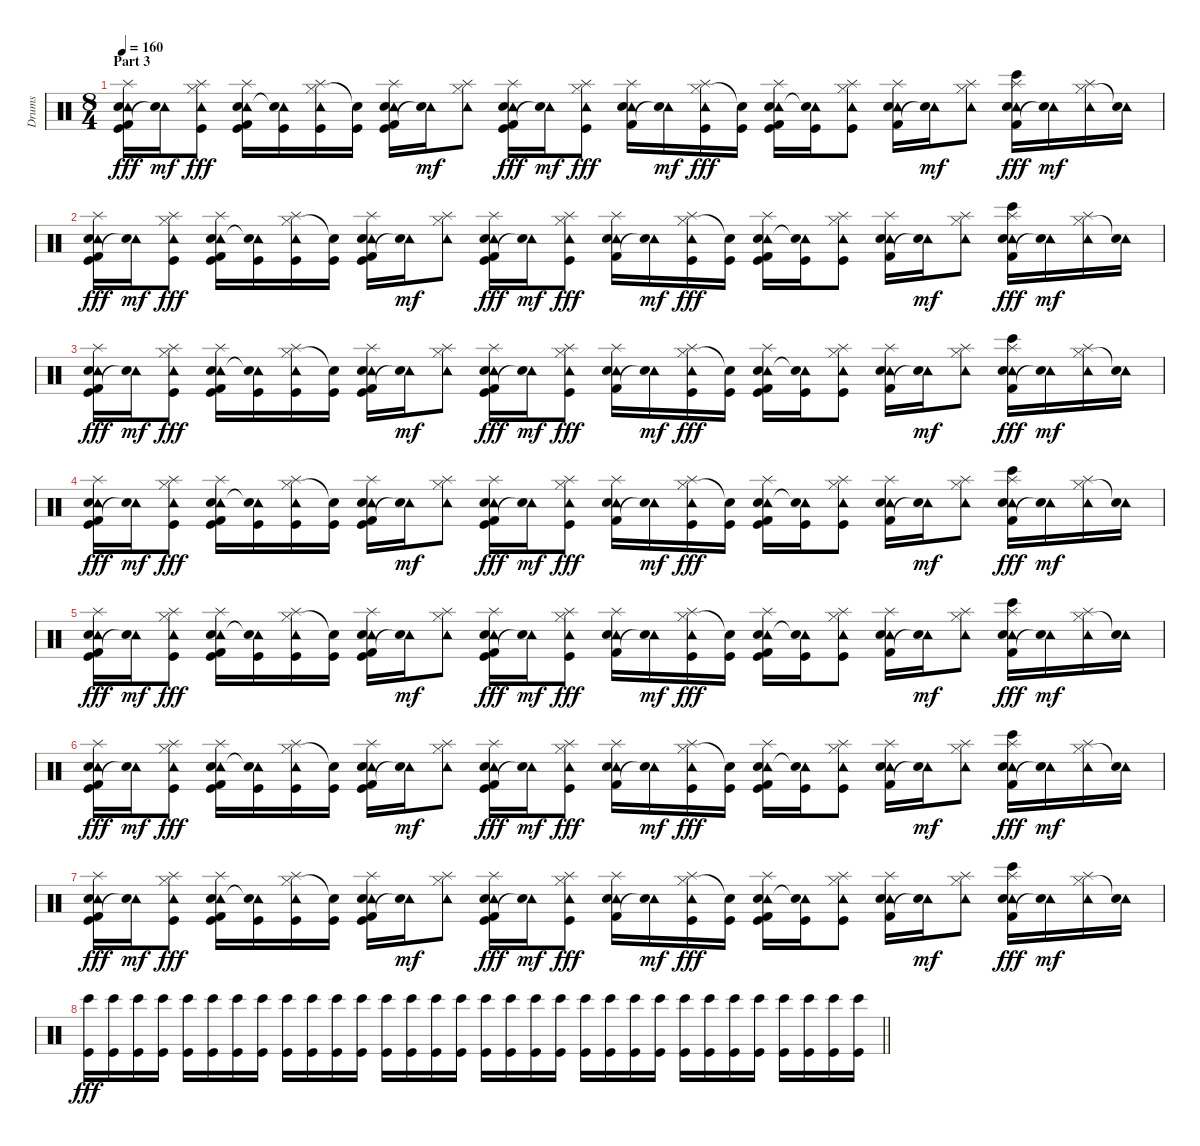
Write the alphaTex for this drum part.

\track ("Drums" "Drums") {instrument percussion}
\staff {score}
\articulation defaults
\ts (8 4)
\section ("" "Part 3")
\tempo 160
\clef neutral
\ks c
("Tambourine (hit)" "Kick (hit) 2" "Hand Clap (hit)" "Splash (hit)" "Kick (hit)").16{dy fff} ("Tambourine (hit)" "Snare (hit)"{t}).16{dy mf} ("Tambourine (hit)" "Hi-Hat (closed)" "Splash (hit)" "Kick (hit)").8{dy fff} ("Tambourine (hit)" "Kick (hit) 2" "Hand Clap (hit)" "Kick (hit)" "Splash (hit)").16 ("Tambourine (hit)" "Kick (hit)" "Snare (hit)"{t}).16 ("Tambourine (hit)" "Hi-Hat (closed)" "Splash (hit)" "Kick (hit)").16 ("Kick (hit)" "Snare (hit)"{t}).16 ("Tambourine (hit)" "Kick (hit) 2" "Hand Clap (hit)" "Kick (hit)" "Splash (hit)").16 ("Tambourine (hit)" "Snare (hit)"{t}).16{dy mf} ("Tambourine (hit)" "Hi-Hat (closed)" "Splash (hit)").8 ("Tambourine (hit)" "Kick (hit) 2" "Hand Clap (hit)" "Kick (hit)" "Splash (hit)").16{dy fff} ("Tambourine (hit)" "Snare (hit)"{t}).16{dy mf} ("Tambourine (hit)" "Hi-Hat (closed)" "Splash (hit)" "Kick (hit)").8{dy fff} ("Tambourine (hit)" "Kick (hit) 2" "Hand Clap (hit)" "Splash (hit)").16 ("Tambourine (hit)" "Snare (hit)"{t}).16{dy mf} ("Tambourine (hit)" "Hi-Hat (closed)" "Splash (hit)" "Kick (hit)").16{dy fff} ("Kick (hit)" "Snare (hit)"{t}).16 ("Tambourine (hit)" "Kick (hit) 2" "Hand Clap (hit)" "Kick (hit)" "Splash (hit)").16 ("Tambourine (hit)" "Kick (hit)" "Snare (hit)"{t}).16 ("Tambourine (hit)" "Hi-Hat (closed)" "Splash (hit)" "Kick (hit)").8 ("Tambourine (hit)" "Kick (hit) 2" "Hand Clap (hit)" "Splash (hit)").16 ("Tambourine (hit)" "Snare (hit)"{t}).16{dy mf} ("Tambourine (hit)" "Hi-Hat (closed)" "Splash (hit)").8 ("Tambourine (hit)" "Kick (hit) 2" "Hand Clap (hit)" "Bongo High (hit)" "Splash (hit)").16{dy fff} ("Tambourine (hit)" "Snare (hit)"{t}).16{dy mf} ("Tambourine (hit)" "Hi-Hat (closed)" "Splash (hit)").16 ("Tambourine (hit)" "Snare (hit)"{t}).16 |
("Tambourine (hit)" "Kick (hit) 2" "Hand Clap (hit)" "Splash (hit)" "Kick (hit)").16{dy fff} ("Tambourine (hit)" "Snare (hit)"{t}).16{dy mf} ("Tambourine (hit)" "Hi-Hat (closed)" "Splash (hit)" "Kick (hit)").8{dy fff} ("Tambourine (hit)" "Kick (hit) 2" "Hand Clap (hit)" "Kick (hit)" "Splash (hit)").16 ("Tambourine (hit)" "Kick (hit)" "Snare (hit)"{t}).16 ("Tambourine (hit)" "Hi-Hat (closed)" "Splash (hit)" "Kick (hit)").16 ("Kick (hit)" "Snare (hit)"{t}).16 ("Tambourine (hit)" "Kick (hit) 2" "Hand Clap (hit)" "Kick (hit)" "Splash (hit)").16 ("Tambourine (hit)" "Snare (hit)"{t}).16{dy mf} ("Tambourine (hit)" "Hi-Hat (closed)" "Splash (hit)").8 ("Tambourine (hit)" "Kick (hit) 2" "Hand Clap (hit)" "Kick (hit)" "Splash (hit)").16{dy fff} ("Tambourine (hit)" "Snare (hit)"{t}).16{dy mf} ("Tambourine (hit)" "Hi-Hat (closed)" "Splash (hit)" "Kick (hit)").8{dy fff} ("Tambourine (hit)" "Kick (hit) 2" "Hand Clap (hit)" "Splash (hit)").16 ("Tambourine (hit)" "Snare (hit)"{t}).16{dy mf} ("Tambourine (hit)" "Hi-Hat (closed)" "Splash (hit)" "Kick (hit)").16{dy fff} ("Kick (hit)" "Snare (hit)"{t}).16 ("Tambourine (hit)" "Kick (hit) 2" "Hand Clap (hit)" "Kick (hit)" "Splash (hit)").16 ("Tambourine (hit)" "Kick (hit)" "Snare (hit)"{t}).16 ("Tambourine (hit)" "Hi-Hat (closed)" "Splash (hit)" "Kick (hit)").8 ("Tambourine (hit)" "Kick (hit) 2" "Hand Clap (hit)" "Splash (hit)").16 ("Tambourine (hit)" "Snare (hit)"{t}).16{dy mf} ("Tambourine (hit)" "Hi-Hat (closed)" "Splash (hit)").8 ("Tambourine (hit)" "Kick (hit) 2" "Hand Clap (hit)" "Bongo High (hit)" "Splash (hit)").16{dy fff} ("Tambourine (hit)" "Snare (hit)"{t}).16{dy mf} ("Tambourine (hit)" "Hi-Hat (closed)" "Splash (hit)").16 ("Tambourine (hit)" "Snare (hit)"{t}).16 |
("Tambourine (hit)" "Kick (hit) 2" "Hand Clap (hit)" "Splash (hit)" "Kick (hit)").16{dy fff} ("Tambourine (hit)" "Snare (hit)"{t}).16{dy mf} ("Tambourine (hit)" "Hi-Hat (closed)" "Splash (hit)" "Kick (hit)").8{dy fff} ("Tambourine (hit)" "Kick (hit) 2" "Hand Clap (hit)" "Kick (hit)" "Splash (hit)").16 ("Tambourine (hit)" "Kick (hit)" "Snare (hit)"{t}).16 ("Tambourine (hit)" "Hi-Hat (closed)" "Splash (hit)" "Kick (hit)").16 ("Kick (hit)" "Snare (hit)"{t}).16 ("Tambourine (hit)" "Kick (hit) 2" "Hand Clap (hit)" "Kick (hit)" "Splash (hit)").16 ("Tambourine (hit)" "Snare (hit)"{t}).16{dy mf} ("Tambourine (hit)" "Hi-Hat (closed)" "Splash (hit)").8 ("Tambourine (hit)" "Kick (hit) 2" "Hand Clap (hit)" "Kick (hit)" "Splash (hit)").16{dy fff} ("Tambourine (hit)" "Snare (hit)"{t}).16{dy mf} ("Tambourine (hit)" "Hi-Hat (closed)" "Splash (hit)" "Kick (hit)").8{dy fff} ("Tambourine (hit)" "Kick (hit) 2" "Hand Clap (hit)" "Splash (hit)").16 ("Tambourine (hit)" "Snare (hit)"{t}).16{dy mf} ("Tambourine (hit)" "Hi-Hat (closed)" "Splash (hit)" "Kick (hit)").16{dy fff} ("Kick (hit)" "Snare (hit)"{t}).16 ("Tambourine (hit)" "Kick (hit) 2" "Hand Clap (hit)" "Kick (hit)" "Splash (hit)").16 ("Tambourine (hit)" "Kick (hit)" "Snare (hit)"{t}).16 ("Tambourine (hit)" "Hi-Hat (closed)" "Splash (hit)" "Kick (hit)").8 ("Tambourine (hit)" "Kick (hit) 2" "Hand Clap (hit)" "Splash (hit)").16 ("Tambourine (hit)" "Snare (hit)"{t}).16{dy mf} ("Tambourine (hit)" "Hi-Hat (closed)" "Splash (hit)").8 ("Tambourine (hit)" "Kick (hit) 2" "Hand Clap (hit)" "Bongo High (hit)" "Splash (hit)").16{dy fff} ("Tambourine (hit)" "Snare (hit)"{t}).16{dy mf} ("Tambourine (hit)" "Hi-Hat (closed)" "Splash (hit)").16 ("Tambourine (hit)" "Snare (hit)"{t}).16 |
("Tambourine (hit)" "Kick (hit) 2" "Hand Clap (hit)" "Splash (hit)" "Kick (hit)").16{dy fff} ("Tambourine (hit)" "Snare (hit)"{t}).16{dy mf} ("Tambourine (hit)" "Hi-Hat (closed)" "Splash (hit)" "Kick (hit)").8{dy fff} ("Tambourine (hit)" "Kick (hit) 2" "Hand Clap (hit)" "Kick (hit)" "Splash (hit)").16 ("Tambourine (hit)" "Kick (hit)" "Snare (hit)"{t}).16 ("Tambourine (hit)" "Hi-Hat (closed)" "Splash (hit)" "Kick (hit)").16 ("Kick (hit)" "Snare (hit)"{t}).16 ("Tambourine (hit)" "Kick (hit) 2" "Hand Clap (hit)" "Kick (hit)" "Splash (hit)").16 ("Tambourine (hit)" "Snare (hit)"{t}).16{dy mf} ("Tambourine (hit)" "Hi-Hat (closed)" "Splash (hit)").8 ("Tambourine (hit)" "Kick (hit) 2" "Hand Clap (hit)" "Kick (hit)" "Splash (hit)").16{dy fff} ("Tambourine (hit)" "Snare (hit)"{t}).16{dy mf} ("Tambourine (hit)" "Hi-Hat (closed)" "Splash (hit)" "Kick (hit)").8{dy fff} ("Tambourine (hit)" "Kick (hit) 2" "Hand Clap (hit)" "Splash (hit)").16 ("Tambourine (hit)" "Snare (hit)"{t}).16{dy mf} ("Tambourine (hit)" "Hi-Hat (closed)" "Splash (hit)" "Kick (hit)").16{dy fff} ("Kick (hit)" "Snare (hit)"{t}).16 ("Tambourine (hit)" "Kick (hit) 2" "Hand Clap (hit)" "Kick (hit)" "Splash (hit)").16 ("Tambourine (hit)" "Kick (hit)" "Snare (hit)"{t}).16 ("Tambourine (hit)" "Hi-Hat (closed)" "Splash (hit)" "Kick (hit)").8 ("Tambourine (hit)" "Kick (hit) 2" "Hand Clap (hit)" "Splash (hit)").16 ("Tambourine (hit)" "Snare (hit)"{t}).16{dy mf} ("Tambourine (hit)" "Hi-Hat (closed)" "Splash (hit)").8 ("Tambourine (hit)" "Kick (hit) 2" "Hand Clap (hit)" "Bongo High (hit)" "Splash (hit)").16{dy fff} ("Tambourine (hit)" "Snare (hit)"{t}).16{dy mf} ("Tambourine (hit)" "Hi-Hat (closed)" "Splash (hit)").16 ("Tambourine (hit)" "Snare (hit)"{t}).16 |
("Tambourine (hit)" "Kick (hit) 2" "Hand Clap (hit)" "Splash (hit)" "Kick (hit)").16{dy fff} ("Tambourine (hit)" "Snare (hit)"{t}).16{dy mf} ("Tambourine (hit)" "Hi-Hat (closed)" "Splash (hit)" "Kick (hit)").8{dy fff} ("Tambourine (hit)" "Kick (hit) 2" "Hand Clap (hit)" "Kick (hit)" "Splash (hit)").16 ("Tambourine (hit)" "Kick (hit)" "Snare (hit)"{t}).16 ("Tambourine (hit)" "Hi-Hat (closed)" "Splash (hit)" "Kick (hit)").16 ("Kick (hit)" "Snare (hit)"{t}).16 ("Tambourine (hit)" "Kick (hit) 2" "Hand Clap (hit)" "Kick (hit)" "Splash (hit)").16 ("Tambourine (hit)" "Snare (hit)"{t}).16{dy mf} ("Tambourine (hit)" "Hi-Hat (closed)" "Splash (hit)").8 ("Tambourine (hit)" "Kick (hit) 2" "Hand Clap (hit)" "Kick (hit)" "Splash (hit)").16{dy fff} ("Tambourine (hit)" "Snare (hit)"{t}).16{dy mf} ("Tambourine (hit)" "Hi-Hat (closed)" "Splash (hit)" "Kick (hit)").8{dy fff} ("Tambourine (hit)" "Kick (hit) 2" "Hand Clap (hit)" "Splash (hit)").16 ("Tambourine (hit)" "Snare (hit)"{t}).16{dy mf} ("Tambourine (hit)" "Hi-Hat (closed)" "Splash (hit)" "Kick (hit)").16{dy fff} ("Kick (hit)" "Snare (hit)"{t}).16 ("Tambourine (hit)" "Kick (hit) 2" "Hand Clap (hit)" "Kick (hit)" "Splash (hit)").16 ("Tambourine (hit)" "Kick (hit)" "Snare (hit)"{t}).16 ("Tambourine (hit)" "Hi-Hat (closed)" "Splash (hit)" "Kick (hit)").8 ("Tambourine (hit)" "Kick (hit) 2" "Hand Clap (hit)" "Splash (hit)").16 ("Tambourine (hit)" "Snare (hit)"{t}).16{dy mf} ("Tambourine (hit)" "Hi-Hat (closed)" "Splash (hit)").8 ("Tambourine (hit)" "Kick (hit) 2" "Hand Clap (hit)" "Bongo High (hit)" "Splash (hit)").16{dy fff} ("Tambourine (hit)" "Snare (hit)"{t}).16{dy mf} ("Tambourine (hit)" "Hi-Hat (closed)" "Splash (hit)").16 ("Tambourine (hit)" "Snare (hit)"{t}).16 |
("Tambourine (hit)" "Kick (hit) 2" "Hand Clap (hit)" "Splash (hit)" "Kick (hit)").16{dy fff} ("Tambourine (hit)" "Snare (hit)"{t}).16{dy mf} ("Tambourine (hit)" "Hi-Hat (closed)" "Splash (hit)" "Kick (hit)").8{dy fff} ("Tambourine (hit)" "Kick (hit) 2" "Hand Clap (hit)" "Kick (hit)" "Splash (hit)").16 ("Tambourine (hit)" "Kick (hit)" "Snare (hit)"{t}).16 ("Tambourine (hit)" "Hi-Hat (closed)" "Splash (hit)" "Kick (hit)").16 ("Kick (hit)" "Snare (hit)"{t}).16 ("Tambourine (hit)" "Kick (hit) 2" "Hand Clap (hit)" "Kick (hit)" "Splash (hit)").16 ("Tambourine (hit)" "Snare (hit)"{t}).16{dy mf} ("Tambourine (hit)" "Hi-Hat (closed)" "Splash (hit)").8 ("Tambourine (hit)" "Kick (hit) 2" "Hand Clap (hit)" "Kick (hit)" "Splash (hit)").16{dy fff} ("Tambourine (hit)" "Snare (hit)"{t}).16{dy mf} ("Tambourine (hit)" "Hi-Hat (closed)" "Splash (hit)" "Kick (hit)").8{dy fff} ("Tambourine (hit)" "Kick (hit) 2" "Hand Clap (hit)" "Splash (hit)").16 ("Tambourine (hit)" "Snare (hit)"{t}).16{dy mf} ("Tambourine (hit)" "Hi-Hat (closed)" "Splash (hit)" "Kick (hit)").16{dy fff} ("Kick (hit)" "Snare (hit)"{t}).16 ("Tambourine (hit)" "Kick (hit) 2" "Hand Clap (hit)" "Kick (hit)" "Splash (hit)").16 ("Tambourine (hit)" "Kick (hit)" "Snare (hit)"{t}).16 ("Tambourine (hit)" "Hi-Hat (closed)" "Splash (hit)" "Kick (hit)").8 ("Tambourine (hit)" "Kick (hit) 2" "Hand Clap (hit)" "Splash (hit)").16 ("Tambourine (hit)" "Snare (hit)"{t}).16{dy mf} ("Tambourine (hit)" "Hi-Hat (closed)" "Splash (hit)").8 ("Tambourine (hit)" "Kick (hit) 2" "Hand Clap (hit)" "Bongo High (hit)" "Splash (hit)").16{dy fff} ("Tambourine (hit)" "Snare (hit)"{t}).16{dy mf} ("Tambourine (hit)" "Hi-Hat (closed)" "Splash (hit)").16 ("Tambourine (hit)" "Snare (hit)"{t}).16 |
("Tambourine (hit)" "Kick (hit) 2" "Hand Clap (hit)" "Splash (hit)" "Kick (hit)").16{dy fff} ("Tambourine (hit)" "Snare (hit)"{t}).16{dy mf} ("Tambourine (hit)" "Hi-Hat (closed)" "Splash (hit)" "Kick (hit)").8{dy fff} ("Tambourine (hit)" "Kick (hit) 2" "Hand Clap (hit)" "Kick (hit)" "Splash (hit)").16 ("Tambourine (hit)" "Kick (hit)" "Snare (hit)"{t}).16 ("Tambourine (hit)" "Hi-Hat (closed)" "Splash (hit)" "Kick (hit)").16 ("Kick (hit)" "Snare (hit)"{t}).16 ("Tambourine (hit)" "Kick (hit) 2" "Hand Clap (hit)" "Kick (hit)" "Splash (hit)").16 ("Tambourine (hit)" "Snare (hit)"{t}).16{dy mf} ("Tambourine (hit)" "Hi-Hat (closed)" "Splash (hit)").8 ("Tambourine (hit)" "Kick (hit) 2" "Hand Clap (hit)" "Kick (hit)" "Splash (hit)").16{dy fff} ("Tambourine (hit)" "Snare (hit)"{t}).16{dy mf} ("Tambourine (hit)" "Hi-Hat (closed)" "Splash (hit)" "Kick (hit)").8{dy fff} ("Tambourine (hit)" "Kick (hit) 2" "Hand Clap (hit)" "Splash (hit)").16 ("Tambourine (hit)" "Snare (hit)"{t}).16{dy mf} ("Tambourine (hit)" "Hi-Hat (closed)" "Splash (hit)" "Kick (hit)").16{dy fff} ("Kick (hit)" "Snare (hit)"{t}).16 ("Tambourine (hit)" "Kick (hit) 2" "Hand Clap (hit)" "Kick (hit)" "Splash (hit)").16 ("Tambourine (hit)" "Kick (hit)" "Snare (hit)"{t}).16 ("Tambourine (hit)" "Hi-Hat (closed)" "Splash (hit)" "Kick (hit)").8 ("Tambourine (hit)" "Kick (hit) 2" "Hand Clap (hit)" "Splash (hit)").16 ("Tambourine (hit)" "Snare (hit)"{t}).16{dy mf} ("Tambourine (hit)" "Hi-Hat (closed)" "Splash (hit)").8 ("Tambourine (hit)" "Kick (hit) 2" "Hand Clap (hit)" "Bongo High (hit)" "Splash (hit)").16{dy fff} ("Tambourine (hit)" "Snare (hit)"{t}).16{dy mf} ("Tambourine (hit)" "Hi-Hat (closed)" "Splash (hit)").16 ("Tambourine (hit)" "Snare (hit)"{t}).16 |
\barLineRight lightlight
("Kick (hit)" "Bongo High (hit)").16{dy fff} ("Kick (hit)" "Bongo High (hit)").16 ("Kick (hit)" "Bongo High (hit)").16 ("Kick (hit)" "Bongo High (hit)").16 ("Kick (hit)" "Bongo High (hit)").16 ("Kick (hit)" "Bongo High (hit)").16 ("Kick (hit)" "Bongo High (hit)").16 ("Kick (hit)" "Bongo High (hit)").16 ("Kick (hit)" "Bongo High (hit)").16 ("Kick (hit)" "Bongo High (hit)").16 ("Kick (hit)" "Bongo High (hit)").16 ("Kick (hit)" "Bongo High (hit)").16 ("Kick (hit)" "Bongo High (hit)").16 ("Kick (hit)" "Bongo High (hit)").16 ("Kick (hit)" "Bongo High (hit)").16 ("Kick (hit)" "Bongo High (hit)").16 ("Kick (hit)" "Bongo High (hit)").16 ("Kick (hit)" "Bongo High (hit)").16 ("Kick (hit)" "Bongo High (hit)").16 ("Kick (hit)" "Bongo High (hit)").16 ("Kick (hit)" "Bongo High (hit)").16 ("Kick (hit)" "Bongo High (hit)").16 ("Kick (hit)" "Bongo High (hit)").16 ("Kick (hit)" "Bongo High (hit)").16 ("Kick (hit)" "Bongo High (hit)").16 ("Kick (hit)" "Bongo High (hit)").16 ("Kick (hit)" "Bongo High (hit)").16 ("Kick (hit)" "Bongo High (hit)").16 ("Kick (hit)" "Bongo High (hit)").16 ("Kick (hit)" "Bongo High (hit)").16 ("Kick (hit)" "Bongo High (hit)").16 ("Kick (hit)" "Bongo High (hit)").16
